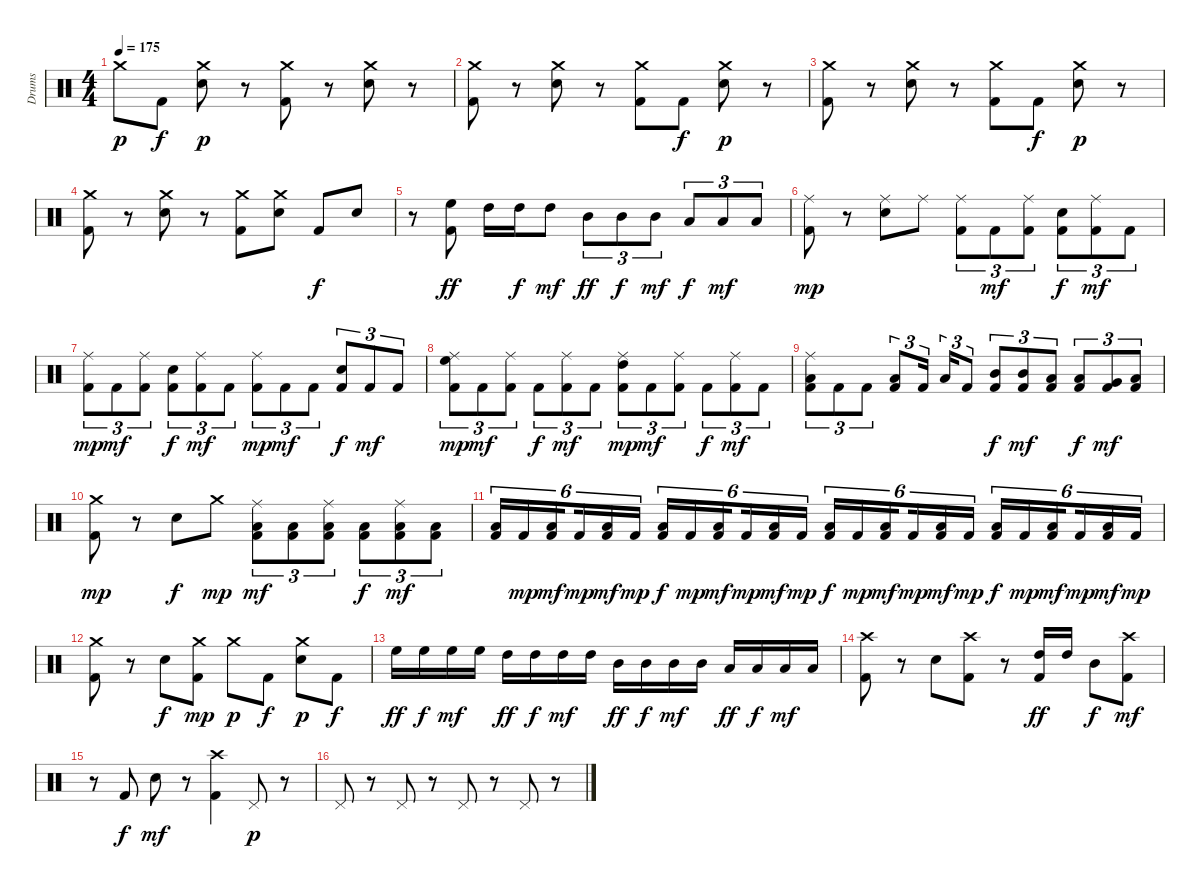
\track ("Drums" "Drums") {instrument percussion}
\staff {score}
\articulation defaults
\ts (4 4)
\tempo 175
\clef neutral
\ks c "Crash medium (hit)".8{dy p} "Kick (hit) 2".8{dy f}
("Crash medium (hit)" "Electric Snare (hit)").8{dy p} r.8 ("Crash medium (hit)" "Kick (hit) 2").8 r.8 ("Crash medium (hit)" "Electric Snare (hit)").8 r.8 |
("Crash medium (hit)" "Kick (hit) 2").8 r.8 ("Crash medium (hit)" "Electric Snare (hit)").8 r.8 ("Crash medium (hit)" "Kick (hit) 2").8 "Kick (hit) 2".8{dy f} ("Crash medium (hit)" "Electric Snare (hit)").8{dy p} r.8 |
("Crash medium (hit)" "Kick (hit) 2").8 r.8 ("Crash medium (hit)" "Electric Snare (hit)").8 r.8 ("Crash medium (hit)" "Kick (hit) 2").8 "Kick (hit) 2".8{dy f} ("Crash medium (hit)" "Electric Snare (hit)").8{dy p} r.8 |
("Crash medium (hit)" "Kick (hit) 2").8 r.8 ("Crash medium (hit)" "Electric Snare (hit)").8 r.8 ("Crash medium (hit)" "Kick (hit) 2").8 ("Crash medium (hit)" "Electric Snare (hit)").8 "Kick (hit) 2".8{dy f} "Electric Snare (hit)".8 |
r.8 ("High Floor Tom (hit)" "Kick (hit) 2").8{dy ff} "High Tom (hit)".16 "High Tom (hit)".16{dy f} "High Tom (hit)".8{dy mf} "Mid Tom (hit)".8{tu (3 2) dy ff} "Mid Tom (hit)".8{tu (3 2) dy f} "Mid Tom (hit)".8{tu (3 2) dy mf} "Low Tom (hit)".8{tu (3 2) dy f} "Low Tom (hit)".8{tu (3 2) dy mf} "Low Tom (hit)".8{tu (3 2)} |
("Ride (middle)" "Kick (hit) 2").8{dy mp} r.8 ("Ride (middle)" "Electric Snare (hit)").8 "Ride (middle)".8 ("Ride (middle)" "Kick (hit) 2").8{tu (3 2)} "Kick (hit) 2".8{tu (3 2) dy mf} ("Ride (middle)" "Kick (hit) 2").8{tu (3 2)} ("Electric Snare (hit)" "Kick (hit) 2").8{tu (3 2) dy f} ("Ride (middle)" "Kick (hit) 2").8{tu (3 2) dy mf} "Kick (hit) 2".8{tu (3 2)} |
("Ride (middle)" "Kick (hit) 2").8{tu (3 2) dy mp} "Kick (hit) 2".8{tu (3 2) dy mf} ("Ride (middle)" "Kick (hit) 2").8{tu (3 2)} ("Electric Snare (hit)" "Kick (hit) 2").8{tu (3 2) dy f} ("Ride (middle)" "Kick (hit) 2").8{tu (3 2) dy mf} "Kick (hit) 2".8{tu (3 2)} ("Ride (middle)" "Kick (hit) 2").8{tu (3 2) dy mp} "Kick (hit) 2".8{tu (3 2) dy mf} "Kick (hit) 2".8{tu (3 2)} ("Electric Snare (hit)" "Kick (hit) 2").8{tu (3 2) dy f} "Kick (hit) 2".8{tu (3 2) dy mf} "Kick (hit) 2".8{tu (3 2)} |
("Ride (middle)" "High Floor Tom (hit)" "Kick (hit) 2").8{tu (3 2) dy mp} "Kick (hit) 2".8{tu (3 2) dy mf} ("Ride (middle)" "Kick (hit) 2").8{tu (3 2)} "Kick (hit) 2".8{tu (3 2) dy f} ("Ride (middle)" "Kick (hit) 2").8{tu (3 2) dy mf} "Kick (hit) 2".8{tu (3 2)} ("Ride (middle)" "High Tom (hit)" "Kick (hit) 2").8{tu (3 2) dy mp} "Kick (hit) 2".8{tu (3 2) dy mf} ("Ride (middle)" "Kick (hit) 2").8{tu (3 2)} "Kick (hit) 2".8{tu (3 2) dy f} ("Ride (middle)" "Kick (hit) 2").8{tu (3 2) dy mf} "Kick (hit) 2".8{tu (3 2)} |
("Ride (middle)" "Low Tom (hit)" "Kick (hit) 2").8{tu (3 2)} "Kick (hit) 2".8{tu (3 2)} "Kick (hit) 2".8{tu (3 2)} ("Low Tom (hit)" "Kick (hit) 2").8{tu (3 2)} "Kick (hit) 2".16{tu (3 2) beam splitsecondary} "Low Tom (hit)".16{tu (3 2)} "Kick (hit) 2".8{tu (3 2)} ("Mid Tom (hit)" "Kick (hit) 2").8{tu (3 2) dy f} ("Mid Tom (hit)" "Kick (hit) 2").8{tu (3 2) dy mf} ("Low Tom (hit)" "Kick (hit) 2").8{tu (3 2)} ("Low Tom (hit)" "Kick (hit) 2").8{tu (3 2) dy f} ("Very Low Tom (hit)" "Kick (hit) 2").8{tu (3 2) dy mf} ("Low Floor Tom (hit)" "Kick (hit) 2").8{tu (3 2)} |
("Crash medium (hit)" "Kick (hit) 2").8{dy mp} r.8 "Electric Snare (hit)".8{dy f} "Crash medium (hit)".8{dy mp} ("Ride (middle)" "Low Tom (hit)" "Kick (hit) 2").8{tu (3 2) dy mf} ("Low Tom (hit)" "Kick (hit) 2").8{tu (3 2)} ("Ride (middle)" "Low Tom (hit)" "Kick (hit) 2").8{tu (3 2)} ("Low Tom (hit)" "Kick (hit) 2").8{tu (3 2) dy f} ("Ride (middle)" "Low Tom (hit)" "Kick (hit) 2").8{tu (3 2) dy mf} ("Low Tom (hit)" "Kick (hit) 2").8{tu (3 2)} |
("Low Tom (hit)" "Kick (hit) 2").16{tu (6 4)} "Kick (hit) 2".16{tu (6 4) dy mp} ("Low Tom (hit)" "Kick (hit) 2").16{tu (6 4) dy mf beam splitsecondary} "Kick (hit) 2".16{tu (6 4) dy mp} ("Low Tom (hit)" "Kick (hit) 2").16{tu (6 4) dy mf} "Kick (hit) 2".16{tu (6 4) dy mp} ("Low Tom (hit)" "Kick (hit) 2").16{tu (6 4) dy f} "Kick (hit) 2".16{tu (6 4) dy mp} ("Low Tom (hit)" "Kick (hit) 2").16{tu (6 4) dy mf beam splitsecondary} "Kick (hit) 2".16{tu (6 4) dy mp} ("Low Tom (hit)" "Kick (hit) 2").16{tu (6 4) dy mf} "Kick (hit) 2".16{tu (6 4) dy mp} ("Low Tom (hit)" "Kick (hit) 2").16{tu (6 4) dy f} "Kick (hit) 2".16{tu (6 4) dy mp} ("Low Tom (hit)" "Kick (hit) 2").16{tu (6 4) dy mf beam splitsecondary} "Kick (hit) 2".16{tu (6 4) dy mp} ("Low Tom (hit)" "Kick (hit) 2").16{tu (6 4) dy mf} "Kick (hit) 2".16{tu (6 4) dy mp} ("Low Tom (hit)" "Kick (hit) 2").16{tu (6 4) dy f} "Kick (hit) 2".16{tu (6 4) dy mp} ("Low Tom (hit)" "Kick (hit) 2").16{tu (6 4) dy mf beam splitsecondary} "Kick (hit) 2".16{tu (6 4) dy mp} ("Low Tom (hit)" "Kick (hit) 2").16{tu (6 4) dy mf} "Kick (hit) 2".16{tu (6 4) dy mp} |
("Crash medium (hit)" "Kick (hit) 2").8 r.8 "Electric Snare (hit)".8{dy f} ("Crash medium (hit)" "Kick (hit) 2").8{dy mp} "Crash medium (hit)".8{dy p} "Kick (hit) 2".8{dy f} ("Crash medium (hit)" "Electric Snare (hit)").8{dy p} "Kick (hit) 2".8{dy f} |
"High Floor Tom (hit)".16{dy ff} "High Floor Tom (hit)".16{dy f} "High Floor Tom (hit)".16{dy mf} "High Floor Tom (hit)".16 "High Tom (hit)".16{dy ff} "High Tom (hit)".16{dy f} "High Tom (hit)".16{dy mf} "High Tom (hit)".16 "Mid Tom (hit)".16{dy ff} "Mid Tom (hit)".16{dy f} "Mid Tom (hit)".16{dy mf} "Mid Tom (hit)".16 "Low Tom (hit)".16{dy ff} "Low Tom (hit)".16{dy f} "Low Tom (hit)".16{dy mf} "Low Tom (hit)".16 |
("Crash high (hit)" "Kick (hit) 2").8 r.8 "Electric Snare (hit)".8 ("Crash high (hit)" "Kick (hit) 2").8 r.8 ("High Tom (hit)" "Kick (hit) 2").16{dy ff} "High Tom (hit)".16 "Mid Tom (hit)".8{dy f} ("Crash high (hit)" "Kick (hit) 2").8{dy mf} |
r.8 "Kick (hit) 2".8{dy f} "Electric Snare (hit)".8{dy mf} r.8 ("Crash high (hit)" "Kick (hit) 2").4 "Pedal Hi-Hat (hit)".8{dy p} r.8 |
"Pedal Hi-Hat (hit)".8 r.8 "Pedal Hi-Hat (hit)".8 r.8 "Pedal Hi-Hat (hit)".8 r.8 "Pedal Hi-Hat (hit)".8 r.8
